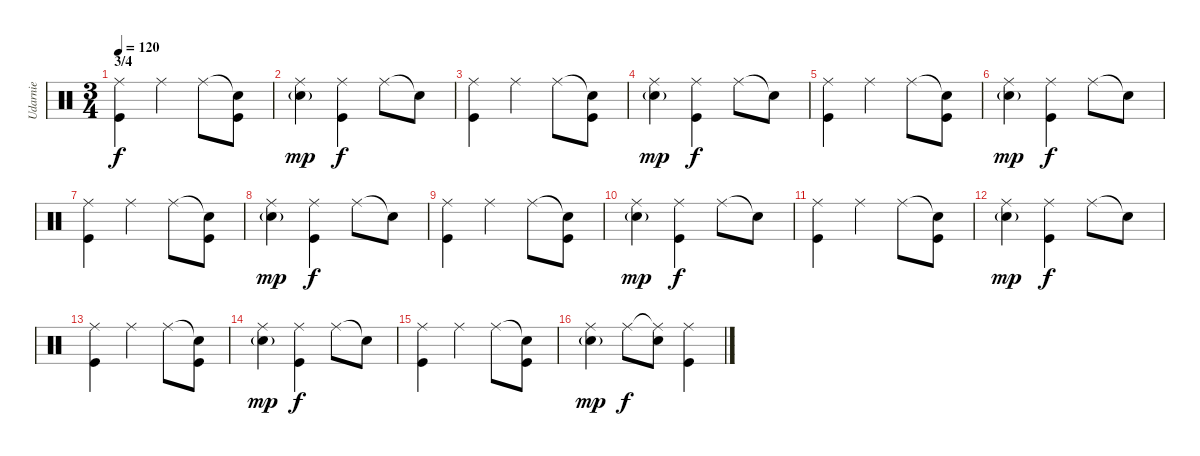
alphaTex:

\track ("Udarnie" "Udarnie") {instrument percussion}
\staff {score}
\articulation defaults
\ts (3 4)
\section ("" "3/4")
\tempo 120
\clef neutral
\ks c
("Ride (middle)" "Kick (hit)").4{dy f} "Ride (middle)".4 "Ride (middle)".8 ("Snare (hit)"{t} "Kick (hit)").8 |
("Ride (middle)" "Electric Snare (hit)"{g}).4{dy mp} ("Ride (middle)" "Kick (hit)").4{dy f} "Ride (middle)".8 "Snare (hit)"{t}.8 |
("Ride (middle)" "Kick (hit)").4 "Ride (middle)".4 "Ride (middle)".8 ("Snare (hit)"{t} "Kick (hit)").8 |
("Ride (middle)" "Electric Snare (hit)"{g}).4{dy mp} ("Ride (middle)" "Kick (hit)").4{dy f} "Ride (middle)".8 "Snare (hit)"{t}.8 |
("Ride (middle)" "Kick (hit)").4 "Ride (middle)".4 "Ride (middle)".8 ("Snare (hit)"{t} "Kick (hit)").8 |
("Ride (middle)" "Electric Snare (hit)"{g}).4{dy mp} ("Ride (middle)" "Kick (hit)").4{dy f} "Ride (middle)".8 "Snare (hit)"{t}.8 |
("Ride (middle)" "Kick (hit)").4 "Ride (middle)".4 "Ride (middle)".8 ("Snare (hit)"{t} "Kick (hit)").8 |
("Ride (middle)" "Electric Snare (hit)"{g}).4{dy mp} ("Ride (middle)" "Kick (hit)").4{dy f} "Ride (middle)".8 "Snare (hit)"{t}.8 |
("Ride (middle)" "Kick (hit)").4 "Ride (middle)".4 "Ride (middle)".8 ("Snare (hit)"{t} "Kick (hit)").8 |
("Ride (middle)" "Electric Snare (hit)"{g}).4{dy mp} ("Ride (middle)" "Kick (hit)").4{dy f} "Ride (middle)".8 "Snare (hit)"{t}.8 |
("Ride (middle)" "Kick (hit)").4 "Ride (middle)".4 "Ride (middle)".8 ("Snare (hit)"{t} "Kick (hit)").8 |
("Ride (middle)" "Electric Snare (hit)"{g}).4{dy mp} ("Ride (middle)" "Kick (hit)").4{dy f} "Ride (middle)".8 "Snare (hit)"{t}.8 |
("Ride (middle)" "Kick (hit)").4 "Ride (middle)".4 "Ride (middle)".8 ("Snare (hit)"{t} "Kick (hit)").8 |
("Ride (middle)" "Electric Snare (hit)"{g}).4{dy mp} ("Ride (middle)" "Kick (hit)").4{dy f} "Ride (middle)".8 "Snare (hit)"{t}.8 |
("Ride (middle)" "Kick (hit)").4 "Ride (middle)".4 "Ride (middle)".8 ("Snare (hit)"{t} "Kick (hit)").8 |
("Ride (middle)" "Electric Snare (hit)"{g}).4{dy mp} "Ride (middle)".8{dy f} ("Ride (middle)"{t} "Electric Snare (hit)").8 ("Ride (middle)" "Kick (hit)").4
